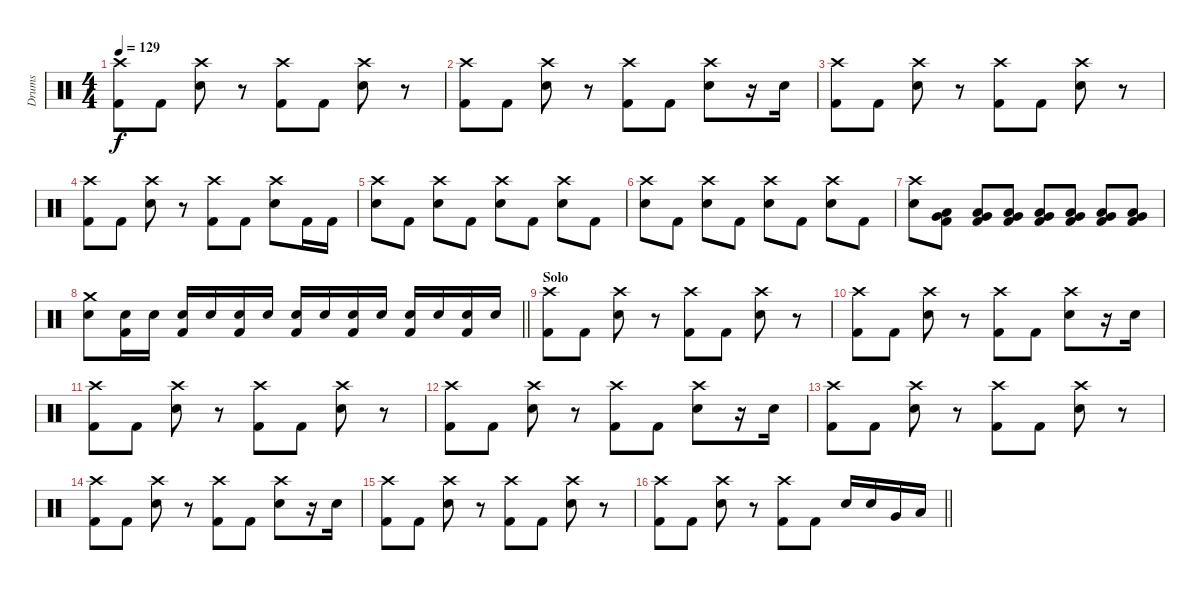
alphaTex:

\track ("Drums" "Drums") {instrument percussion}
\staff {score}
\articulation defaults
\ts (4 4)
\tempo 129
\clef neutral
\ks c
("Crash high (hit)" "Kick (hit) 2").8{dy f} "Kick (hit) 2".8 ("Crash high (hit)" "Electric Snare (hit)").8 r.8 ("Crash high (hit)" "Kick (hit) 2").8 "Kick (hit) 2".8 ("Crash high (hit)" "Electric Snare (hit)").8 r.8 |
("Crash high (hit)" "Kick (hit) 2").8 "Kick (hit) 2".8 ("Crash high (hit)" "Electric Snare (hit)").8 r.8 ("Crash high (hit)" "Kick (hit) 2").8 "Kick (hit) 2".8 ("Crash high (hit)" "Electric Snare (hit)").8 r.16 "Electric Snare (hit)".16 |
("Crash high (hit)" "Kick (hit) 2").8 "Kick (hit) 2".8 ("Crash high (hit)" "Electric Snare (hit)").8 r.8 ("Crash high (hit)" "Kick (hit) 2").8 "Kick (hit) 2".8 ("Crash high (hit)" "Electric Snare (hit)").8 r.8 |
("Crash high (hit)" "Kick (hit) 2").8 "Kick (hit) 2".8 ("Crash high (hit)" "Electric Snare (hit)").8 r.8 ("Crash high (hit)" "Kick (hit) 2").8 "Kick (hit) 2".8 ("Crash high (hit)" "Electric Snare (hit)").8 "Kick (hit) 2".16 "Kick (hit) 2".16 |
("Crash high (hit)" "Electric Snare (hit)").8 "Kick (hit) 2".8 ("Crash high (hit)" "Electric Snare (hit)").8 "Kick (hit) 2".8 ("Crash high (hit)" "Electric Snare (hit)").8 "Kick (hit) 2".8 ("Crash high (hit)" "Electric Snare (hit)").8 "Kick (hit) 2".8 |
("Crash high (hit)" "Electric Snare (hit)").8 "Kick (hit) 2".8 ("Crash high (hit)" "Electric Snare (hit)").8 "Kick (hit) 2".8 ("Crash high (hit)" "Electric Snare (hit)").8 "Kick (hit) 2".8 ("Crash high (hit)" "Electric Snare (hit)").8 "Kick (hit) 2".8 |
("Crash high (hit)" "Electric Snare (hit)").8 ("Very Low Tom (hit)" "Low Floor Tom (hit)" "Kick (hit) 2").8 ("Very Low Tom (hit)" "Low Floor Tom (hit)" "Kick (hit) 2").8 ("Very Low Tom (hit)" "Low Floor Tom (hit)" "Kick (hit) 2").8 ("Very Low Tom (hit)" "Low Floor Tom (hit)" "Kick (hit) 2").8 ("Very Low Tom (hit)" "Low Floor Tom (hit)" "Kick (hit) 2").8 ("Very Low Tom (hit)" "Low Floor Tom (hit)" "Kick (hit) 2").8 ("Very Low Tom (hit)" "Low Floor Tom (hit)" "Kick (hit) 2").8 |
\barLineRight lightlight
("Crash medium (hit)" "Electric Snare (hit)").8 ("Electric Snare (hit)" "Kick (hit) 2").16 "Electric Snare (hit)".16 ("Electric Snare (hit)" "Kick (hit) 2").16 "Electric Snare (hit)".16 ("Electric Snare (hit)" "Kick (hit) 2").16 "Electric Snare (hit)".16 ("Electric Snare (hit)" "Kick (hit) 2").16 "Electric Snare (hit)".16 ("Electric Snare (hit)" "Kick (hit) 2").16 "Electric Snare (hit)".16 ("Electric Snare (hit)" "Kick (hit) 2").16 "Electric Snare (hit)".16 ("Electric Snare (hit)" "Kick (hit) 2").16 "Electric Snare (hit)".16 |
\section ("" "Solo")
("Crash high (hit)" "Kick (hit) 2").8 "Kick (hit) 2".8 ("Crash high (hit)" "Electric Snare (hit)").8 r.8 ("Crash high (hit)" "Kick (hit) 2").8 "Kick (hit) 2".8 ("Crash high (hit)" "Electric Snare (hit)").8 r.8 |
("Crash high (hit)" "Kick (hit) 2").8 "Kick (hit) 2".8 ("Crash high (hit)" "Electric Snare (hit)").8 r.8 ("Crash high (hit)" "Kick (hit) 2").8 "Kick (hit) 2".8 ("Crash high (hit)" "Electric Snare (hit)").8 r.16 "Electric Snare (hit)".16 |
("Crash high (hit)" "Kick (hit) 2").8 "Kick (hit) 2".8 ("Crash high (hit)" "Electric Snare (hit)").8 r.8 ("Crash high (hit)" "Kick (hit) 2").8 "Kick (hit) 2".8 ("Crash high (hit)" "Electric Snare (hit)").8 r.8 |
("Crash high (hit)" "Kick (hit) 2").8 "Kick (hit) 2".8 ("Crash high (hit)" "Electric Snare (hit)").8 r.8 ("Crash high (hit)" "Kick (hit) 2").8 "Kick (hit) 2".8 ("Crash high (hit)" "Electric Snare (hit)").8 r.16 "Electric Snare (hit)".16 |
("Crash high (hit)" "Kick (hit) 2").8 "Kick (hit) 2".8 ("Crash high (hit)" "Electric Snare (hit)").8 r.8 ("Crash high (hit)" "Kick (hit) 2").8 "Kick (hit) 2".8 ("Crash high (hit)" "Electric Snare (hit)").8 r.8 |
("Crash high (hit)" "Kick (hit) 2").8 "Kick (hit) 2".8 ("Crash high (hit)" "Electric Snare (hit)").8 r.8 ("Crash high (hit)" "Kick (hit) 2").8 "Kick (hit) 2".8 ("Crash high (hit)" "Electric Snare (hit)").8 r.16 "Electric Snare (hit)".16 |
("Crash high (hit)" "Kick (hit) 2").8 "Kick (hit) 2".8 ("Crash high (hit)" "Electric Snare (hit)").8 r.8 ("Crash high (hit)" "Kick (hit) 2").8 "Kick (hit) 2".8 ("Crash high (hit)" "Electric Snare (hit)").8 r.8 |
\barLineRight lightlight
("Crash high (hit)" "Kick (hit) 2").8 "Kick (hit) 2".8 ("Crash high (hit)" "Electric Snare (hit)").8 r.8 ("Crash high (hit)" "Kick (hit) 2").8 "Kick (hit) 2".8 "Electric Snare (hit)".16 "Electric Snare (hit)".16 "Very Low Tom (hit)".16 "Low Tom (hit)".16
